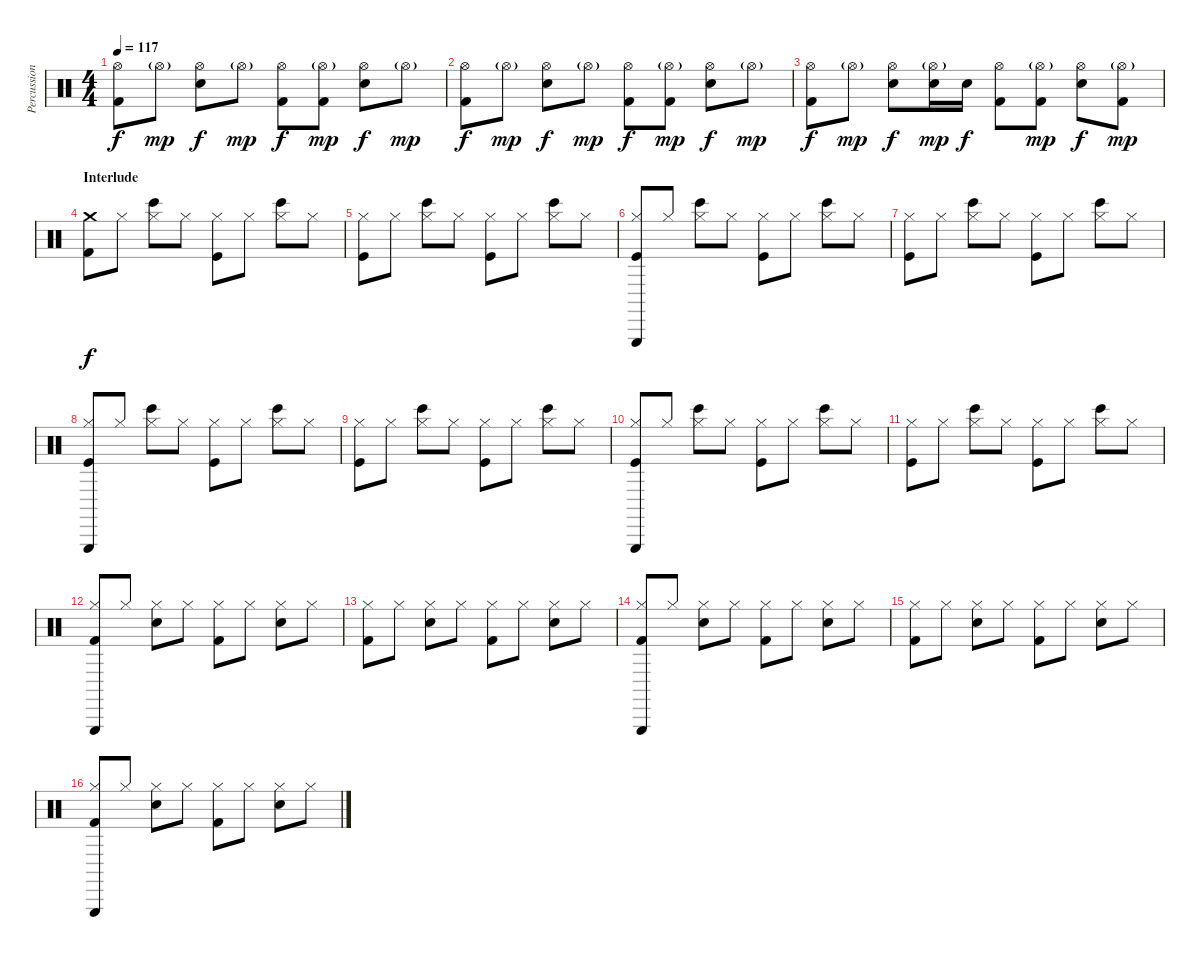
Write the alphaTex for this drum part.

\track ("Percussion" "Percussion") {instrument percussion}
\staff {score}
\articulation defaults
\ts (4 4)
\tempo 117
\clef neutral
\ks c
("Hi-Hat (open)" "Kick (hit) 2").8{dy f} "Hi-Hat (open)"{g}.8{dy mp} ("Hi-Hat (open)" "Electric Snare (hit)").8{dy f} "Hi-Hat (open)"{g}.8{dy mp} ("Hi-Hat (open)" "Kick (hit) 2").8{dy f} ("Hi-Hat (open)"{g} "Kick (hit) 2").8{dy mp} ("Hi-Hat (open)" "Electric Snare (hit)").8{dy f} "Hi-Hat (open)"{g}.8{dy mp} |
("Hi-Hat (open)" "Kick (hit) 2").8{dy f} "Hi-Hat (open)"{g}.8{dy mp} ("Hi-Hat (open)" "Electric Snare (hit)").8{dy f} "Hi-Hat (open)"{g}.8{dy mp} ("Hi-Hat (open)" "Kick (hit) 2").8{dy f} ("Hi-Hat (open)"{g} "Kick (hit) 2").8{dy mp} ("Hi-Hat (open)" "Electric Snare (hit)").8{dy f} "Hi-Hat (open)"{g}.8{dy mp} |
("Hi-Hat (open)" "Kick (hit) 2").8{dy f} "Hi-Hat (open)"{g}.8{dy mp} ("Hi-Hat (open)" "Electric Snare (hit)").8{dy f} ("Hi-Hat (open)"{g} "Electric Snare (hit)").16{dy mp} "Electric Snare (hit)".16{dy f} ("Hi-Hat (open)" "Kick (hit) 2").8 ("Hi-Hat (open)"{g} "Kick (hit) 2").8{dy mp} ("Hi-Hat (open)" "Electric Snare (hit)").8{dy f} ("Hi-Hat (open)"{g} "Kick (hit) 2").8{dy mp} |
\section ("" "Interlude")
("Crash medium (hit)" "Kick (hit) 2").8{dy f} "Hi-Hat (closed)".8 ("Hi-Hat (closed)" "Bongo High (hit)").8 "Hi-Hat (closed)".8 ("Hi-Hat (closed)" "Kick (hit)").8 "Hi-Hat (closed)".8 ("Hi-Hat (closed)" "Bongo High (hit)").8 "Hi-Hat (closed)".8 |
("Hi-Hat (closed)" "Kick (hit)").8 "Hi-Hat (closed)".8 ("Hi-Hat (closed)" "Bongo High (hit)").8 "Hi-Hat (closed)".8 ("Hi-Hat (closed)" "Kick (hit)").8 "Hi-Hat (closed)".8 ("Hi-Hat (closed)" "Bongo High (hit)").8 "Hi-Hat (closed)".8 |
("Triangle (hit)" "Hi-Hat (closed)" "Kick (hit)").8 "Hi-Hat (closed)".8 ("Hi-Hat (closed)" "Bongo High (hit)").8 "Hi-Hat (closed)".8 ("Hi-Hat (closed)" "Kick (hit)").8 "Hi-Hat (closed)".8 ("Hi-Hat (closed)" "Bongo High (hit)").8 "Hi-Hat (closed)".8 |
("Hi-Hat (closed)" "Kick (hit)").8 "Hi-Hat (closed)".8 ("Hi-Hat (closed)" "Bongo High (hit)").8 "Hi-Hat (closed)".8 ("Hi-Hat (closed)" "Kick (hit)").8 "Hi-Hat (closed)".8 ("Hi-Hat (closed)" "Bongo High (hit)").8 "Hi-Hat (closed)".8 |
("Triangle (hit)" "Hi-Hat (closed)" "Kick (hit)").8 "Hi-Hat (closed)".8 ("Hi-Hat (closed)" "Bongo High (hit)").8 "Hi-Hat (closed)".8 ("Hi-Hat (closed)" "Kick (hit)").8 "Hi-Hat (closed)".8 ("Hi-Hat (closed)" "Bongo High (hit)").8 "Hi-Hat (closed)".8 |
("Hi-Hat (closed)" "Kick (hit)").8 "Hi-Hat (closed)".8 ("Hi-Hat (closed)" "Bongo High (hit)").8 "Hi-Hat (closed)".8 ("Hi-Hat (closed)" "Kick (hit)").8 "Hi-Hat (closed)".8 ("Hi-Hat (closed)" "Bongo High (hit)").8 "Hi-Hat (closed)".8 |
("Triangle (hit)" "Hi-Hat (closed)" "Kick (hit)").8 "Hi-Hat (closed)".8 ("Hi-Hat (closed)" "Bongo High (hit)").8 "Hi-Hat (closed)".8 ("Hi-Hat (closed)" "Kick (hit)").8 "Hi-Hat (closed)".8 ("Hi-Hat (closed)" "Bongo High (hit)").8 "Hi-Hat (closed)".8 |
("Hi-Hat (closed)" "Kick (hit)").8 "Hi-Hat (closed)".8 ("Hi-Hat (closed)" "Bongo High (hit)").8 "Hi-Hat (closed)".8 ("Hi-Hat (closed)" "Kick (hit)").8 "Hi-Hat (closed)".8 ("Hi-Hat (closed)" "Bongo High (hit)").8 "Hi-Hat (closed)".8 |
("Triangle (hit)" "Hi-Hat (closed)" "Kick (hit) 2").8 "Hi-Hat (closed)".8 ("Hi-Hat (closed)" "Snare (hit) 2").8 "Hi-Hat (closed)".8 ("Hi-Hat (closed)" "Kick (hit) 2").8 "Hi-Hat (closed)".8 ("Hi-Hat (closed)" "Snare (hit) 2").8 "Hi-Hat (closed)".8 |
("Hi-Hat (closed)" "Kick (hit) 2").8 "Hi-Hat (closed)".8 ("Hi-Hat (closed)" "Snare (hit) 2").8 "Hi-Hat (closed)".8 ("Hi-Hat (closed)" "Kick (hit) 2").8 "Hi-Hat (closed)".8 ("Hi-Hat (closed)" "Snare (hit) 2").8 "Hi-Hat (closed)".8 |
("Triangle (hit)" "Hi-Hat (closed)" "Kick (hit) 2").8 "Hi-Hat (closed)".8 ("Hi-Hat (closed)" "Snare (hit) 2").8 "Hi-Hat (closed)".8 ("Hi-Hat (closed)" "Kick (hit) 2").8 "Hi-Hat (closed)".8 ("Hi-Hat (closed)" "Snare (hit) 2").8 "Hi-Hat (closed)".8 |
("Hi-Hat (closed)" "Kick (hit) 2").8 "Hi-Hat (closed)".8 ("Hi-Hat (closed)" "Snare (hit) 2").8 "Hi-Hat (closed)".8 ("Hi-Hat (closed)" "Kick (hit) 2").8 "Hi-Hat (closed)".8 ("Hi-Hat (closed)" "Snare (hit) 2").8 "Hi-Hat (closed)".8 |
("Triangle (hit)" "Hi-Hat (closed)" "Kick (hit) 2").8 "Hi-Hat (closed)".8 ("Hi-Hat (closed)" "Snare (hit) 2").8 "Hi-Hat (closed)".8 ("Hi-Hat (closed)" "Kick (hit) 2").8 "Hi-Hat (closed)".8 ("Hi-Hat (closed)" "Snare (hit) 2").8 "Hi-Hat (closed)".8
